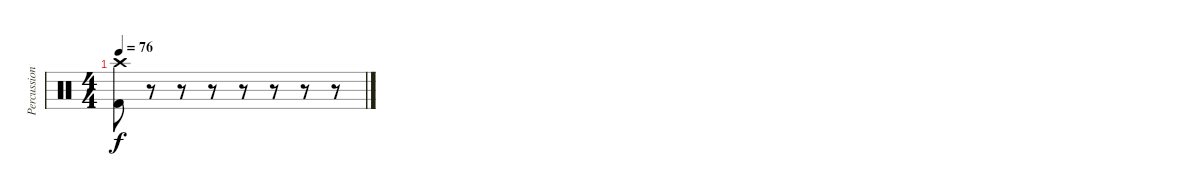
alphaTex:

\track ("Percussion" "Percussion") {instrument percussion}
\staff {score}
\articulation defaults
\ts (4 4)
\tempo 76
\clef neutral
\ks c
("Crash high (hit)" "Kick (hit) 2").8{dy f} r.8 r.8 r.8 r.8 r.8 r.8 r.8
